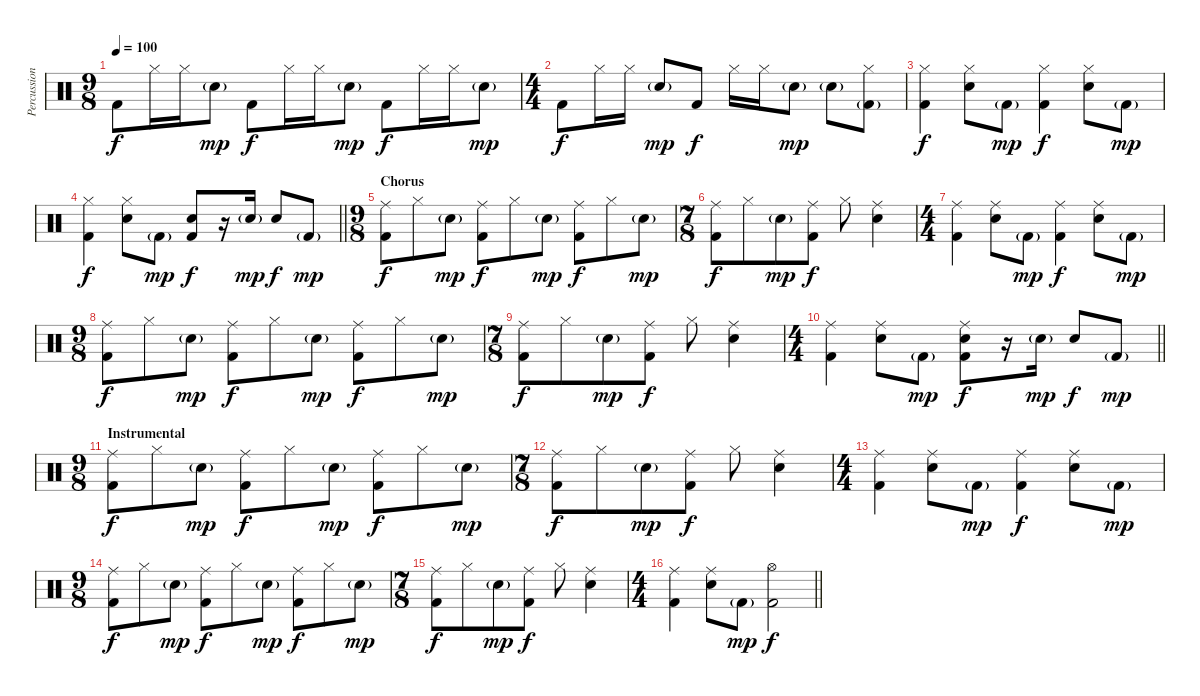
\track ("Percussion" "Percussion") {instrument percussion}
\staff {score}
\articulation defaults
\ts (9 8)
\tempo 100
\clef neutral
\ks c "Kick (hit) 2".8{dy f} "Hi-Hat (closed)".16 "Hi-Hat (closed)".16 "Snare (hit) 2"{g}.8{dy mp} "Kick (hit) 2".8{dy f} "Hi-Hat (closed)".16 "Hi-Hat (closed)".16 "Snare (hit) 2"{g}.8{dy mp} "Kick (hit) 2".8{dy f} "Hi-Hat (closed)".16 "Hi-Hat (closed)".16 "Snare (hit) 2"{g}.8{dy mp}
|
\ts (4 4)
"Kick (hit) 2".8{dy f} "Hi-Hat (closed)".16 "Hi-Hat (closed)".16 "Snare (hit) 2"{g}.8{dy mp} "Kick (hit) 2".8{dy f} "Hi-Hat (closed)".16 "Hi-Hat (closed)".16 "Snare (hit) 2"{g}.8{dy mp} "Snare (hit) 2"{g}.8 ("Hi-Hat (closed)" "Kick (hit) 2"{g}).8 |
("Hi-Hat (closed)" "Kick (hit) 2").4{dy f} ("Hi-Hat (closed)" "Snare (hit) 2").8 "Kick (hit) 2"{g}.8{dy mp} ("Hi-Hat (closed)" "Kick (hit) 2").4{dy f} ("Hi-Hat (closed)" "Snare (hit) 2").8 "Kick (hit) 2"{g}.8{dy mp} |
\barLineRight lightlight
("Hi-Hat (closed)" "Kick (hit) 2").4{dy f} ("Hi-Hat (closed)" "Snare (hit) 2").8 "Kick (hit) 2"{g}.8{dy mp} ("Snare (hit) 2" "Kick (hit) 2").8{dy f} r.16 "Snare (hit) 2"{g}.16{dy mp} "Snare (hit) 2".8{dy f} "Kick (hit) 2"{g}.8{dy mp} |
\ts (9 8)
\section ("" "Chorus")
("Ride (middle)" "Kick (hit) 2").8{dy f} "Hi-Hat (closed)".8 "Snare (hit) 2"{g}.8{dy mp} ("Ride (middle)" "Kick (hit) 2").8{dy f} "Hi-Hat (closed)".8 "Snare (hit) 2"{g}.8{dy mp} ("Ride (middle)" "Kick (hit) 2").8{dy f} "Hi-Hat (closed)".8 "Snare (hit) 2"{g}.8{dy mp} |
\ts (7 8)
("Ride (middle)" "Kick (hit) 2").8{dy f} "Hi-Hat (closed)".8 "Snare (hit) 2"{g}.8{dy mp} ("Ride (middle)" "Kick (hit) 2").8{dy f} "Hi-Hat (closed)".8 ("Ride (middle)" "Snare (hit) 2").4 |
\ts (4 4)
("Ride (middle)" "Kick (hit) 2").4 ("Ride (middle)" "Snare (hit) 2").8 "Kick (hit) 2"{g}.8{dy mp} ("Ride (middle)" "Kick (hit) 2").4{dy f} ("Ride (middle)" "Snare (hit) 2").8 "Kick (hit) 2"{g}.8{dy mp} |
\ts (9 8)
("Ride (middle)" "Kick (hit) 2").8{dy f} "Hi-Hat (closed)".8 "Snare (hit) 2"{g}.8{dy mp} ("Ride (middle)" "Kick (hit) 2").8{dy f} "Hi-Hat (closed)".8 "Snare (hit) 2"{g}.8{dy mp} ("Ride (middle)" "Kick (hit) 2").8{dy f} "Hi-Hat (closed)".8 "Snare (hit) 2"{g}.8{dy mp} |
\ts (7 8)
("Ride (middle)" "Kick (hit) 2").8{dy f} "Hi-Hat (closed)".8 "Snare (hit) 2"{g}.8{dy mp} ("Ride (middle)" "Kick (hit) 2").8{dy f} "Hi-Hat (closed)".8 ("Ride (middle)" "Snare (hit) 2").4 |
\ts (4 4)
\barLineRight lightlight
("Ride (middle)" "Kick (hit) 2").4 ("Ride (middle)" "Snare (hit) 2").8 "Kick (hit) 2"{g}.8{dy mp} ("Ride (middle)" "Snare (hit) 2" "Kick (hit) 2").8{dy f} r.16 "Snare (hit) 2"{g}.16{dy mp} "Snare (hit) 2".8{dy f} "Kick (hit) 2"{g}.8{dy mp} |
\ts (9 8)
\section ("" "Instrumental")
("Ride (middle)" "Kick (hit) 2").8{dy f} "Hi-Hat (closed)".8 "Snare (hit) 2"{g}.8{dy mp} ("Ride (middle)" "Kick (hit) 2").8{dy f} "Hi-Hat (closed)".8 "Snare (hit) 2"{g}.8{dy mp} ("Ride (middle)" "Kick (hit) 2").8{dy f} "Hi-Hat (closed)".8 "Snare (hit) 2"{g}.8{dy mp} |
\ts (7 8)
("Ride (middle)" "Kick (hit) 2").8{dy f} "Hi-Hat (closed)".8 "Snare (hit) 2"{g}.8{dy mp} ("Ride (middle)" "Kick (hit) 2").8{dy f} "Hi-Hat (closed)".8 ("Ride (middle)" "Snare (hit) 2").4 |
\ts (4 4)
("Ride (middle)" "Kick (hit) 2").4 ("Ride (middle)" "Snare (hit) 2").8 "Kick (hit) 2"{g}.8{dy mp} ("Ride (middle)" "Kick (hit) 2").4{dy f} ("Ride (middle)" "Snare (hit) 2").8 "Kick (hit) 2"{g}.8{dy mp} |
\ts (9 8)
("Ride (middle)" "Kick (hit) 2").8{dy f} "Hi-Hat (closed)".8 "Snare (hit) 2"{g}.8{dy mp} ("Ride (middle)" "Kick (hit) 2").8{dy f} "Hi-Hat (closed)".8 "Snare (hit) 2"{g}.8{dy mp} ("Ride (middle)" "Kick (hit) 2").8{dy f} "Hi-Hat (closed)".8 "Snare (hit) 2"{g}.8{dy mp} |
\ts (7 8)
("Ride (middle)" "Kick (hit) 2").8{dy f} "Hi-Hat (closed)".8 "Snare (hit) 2"{g}.8{dy mp} ("Ride (middle)" "Kick (hit) 2").8{dy f} "Hi-Hat (closed)".8 ("Ride (middle)" "Snare (hit) 2").4 |
\ts (4 4)
\barLineRight lightlight
("Ride (middle)" "Kick (hit) 2").4 ("Ride (middle)" "Snare (hit) 2").8 "Kick (hit) 2"{g}.8{dy mp} ("Hi-Hat (open)" "Kick (hit) 2").2{dy f}
